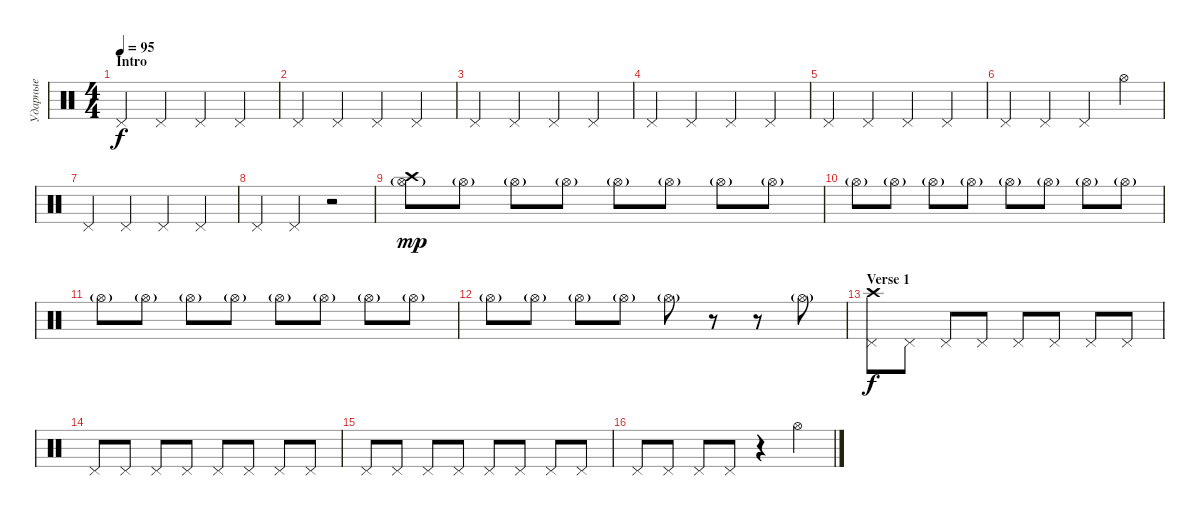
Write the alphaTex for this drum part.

\track ("Ударные" "Ударные") {instrument percussion}
\staff {score}
\articulation defaults
\ts (4 4)
\section ("" "Intro")
\tempo 95
\clef neutral
\ks c "Pedal Hi-Hat (hit)".4{dy f} "Pedal Hi-Hat (hit)".4 "Pedal Hi-Hat (hit)".4 "Pedal Hi-Hat (hit)".4
|
"Pedal Hi-Hat (hit)".4 "Pedal Hi-Hat (hit)".4 "Pedal Hi-Hat (hit)".4 "Pedal Hi-Hat (hit)".4 |
"Pedal Hi-Hat (hit)".4 "Pedal Hi-Hat (hit)".4 "Pedal Hi-Hat (hit)".4 "Pedal Hi-Hat (hit)".4 |
"Pedal Hi-Hat (hit)".4 "Pedal Hi-Hat (hit)".4 "Pedal Hi-Hat (hit)".4 "Pedal Hi-Hat (hit)".4 |
"Pedal Hi-Hat (hit)".4 "Pedal Hi-Hat (hit)".4 "Pedal Hi-Hat (hit)".4 "Pedal Hi-Hat (hit)".4 |
"Pedal Hi-Hat (hit)".4 "Pedal Hi-Hat (hit)".4 "Pedal Hi-Hat (hit)".4 "Hi-Hat (open)".4 |
"Pedal Hi-Hat (hit)".4 "Pedal Hi-Hat (hit)".4 "Pedal Hi-Hat (hit)".4 "Pedal Hi-Hat (hit)".4 |
"Pedal Hi-Hat (hit)".4 "Pedal Hi-Hat (hit)".4 r.2 |
("Hi-Hat (open)"{g} "Crash high (hit)").8{dy mp} "Hi-Hat (open)"{g}.8 "Hi-Hat (open)"{g}.8 "Hi-Hat (open)"{g}.8 "Hi-Hat (open)"{g}.8 "Hi-Hat (open)"{g}.8 "Hi-Hat (open)"{g}.8 "Hi-Hat (open)"{g}.8 |
"Hi-Hat (open)"{g}.8 "Hi-Hat (open)"{g}.8 "Hi-Hat (open)"{g}.8 "Hi-Hat (open)"{g}.8 "Hi-Hat (open)"{g}.8 "Hi-Hat (open)"{g}.8 "Hi-Hat (open)"{g}.8 "Hi-Hat (open)"{g}.8 |
"Hi-Hat (open)"{g}.8 "Hi-Hat (open)"{g}.8 "Hi-Hat (open)"{g}.8 "Hi-Hat (open)"{g}.8 "Hi-Hat (open)"{g}.8 "Hi-Hat (open)"{g}.8 "Hi-Hat (open)"{g}.8 "Hi-Hat (open)"{g}.8 |
"Hi-Hat (open)"{g}.8 "Hi-Hat (open)"{g}.8 "Hi-Hat (open)"{g}.8 "Hi-Hat (open)"{g}.8 "Hi-Hat (open)"{g}.8 r.8 r.8 "Hi-Hat (open)"{g}.8 |
\section ("" "Verse 1")
("Pedal Hi-Hat (hit)" "Crash high (hit)").8{dy f} "Pedal Hi-Hat (hit)".8 "Pedal Hi-Hat (hit)".8 "Pedal Hi-Hat (hit)".8 "Pedal Hi-Hat (hit)".8 "Pedal Hi-Hat (hit)".8 "Pedal Hi-Hat (hit)".8 "Pedal Hi-Hat (hit)".8 |
"Pedal Hi-Hat (hit)".8 "Pedal Hi-Hat (hit)".8 "Pedal Hi-Hat (hit)".8 "Pedal Hi-Hat (hit)".8 "Pedal Hi-Hat (hit)".8 "Pedal Hi-Hat (hit)".8 "Pedal Hi-Hat (hit)".8 "Pedal Hi-Hat (hit)".8 |
"Pedal Hi-Hat (hit)".8 "Pedal Hi-Hat (hit)".8 "Pedal Hi-Hat (hit)".8 "Pedal Hi-Hat (hit)".8 "Pedal Hi-Hat (hit)".8 "Pedal Hi-Hat (hit)".8 "Pedal Hi-Hat (hit)".8 "Pedal Hi-Hat (hit)".8 |
"Pedal Hi-Hat (hit)".8 "Pedal Hi-Hat (hit)".8 "Pedal Hi-Hat (hit)".8 "Pedal Hi-Hat (hit)".8 r.4 "Hi-Hat (open)".4
